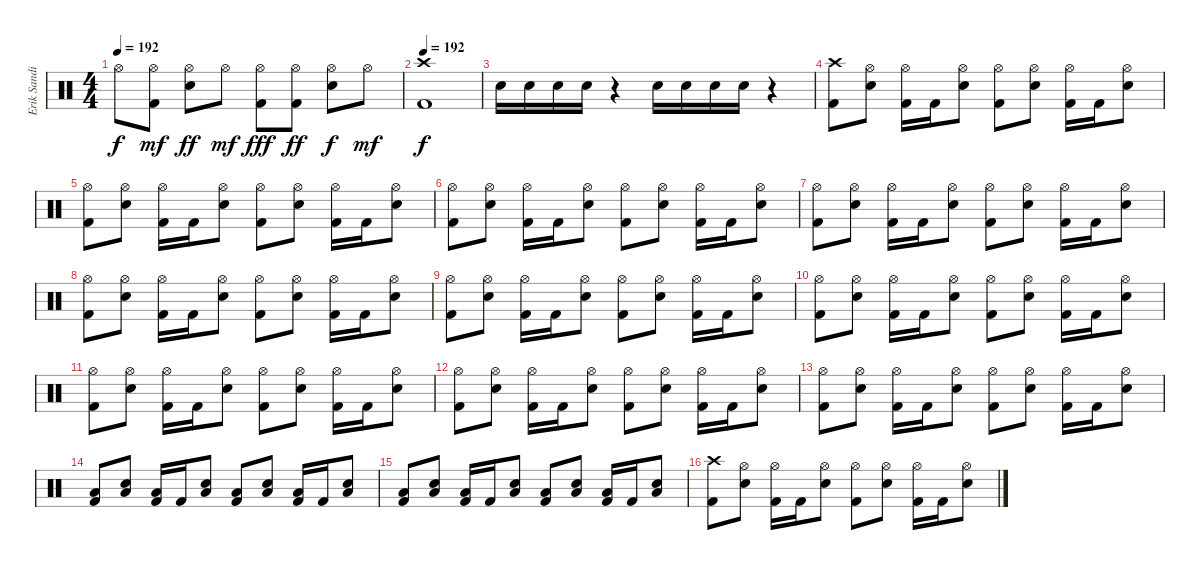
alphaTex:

\track ("Erik Sandin - Drums" "Erik Sandi") {instrument percussion}
\staff {score}
\articulation defaults
\ts (4 4)
\tempo 192
\clef neutral
\ks c "Hi-Hat (open)".8{dy f}
("Hi-Hat (open)" "Kick (hit) 2").8{dy mf} ("Hi-Hat (open)" "Electric Snare (hit)").8{dy ff} "Hi-Hat (open)".8{dy mf} ("Hi-Hat (open)" "Kick (hit) 2").8{dy fff} ("Hi-Hat (open)" "Kick (hit) 2").8{dy ff} ("Hi-Hat (open)" "Electric Snare (hit)").8{dy f} "Hi-Hat (open)".8{dy mf} |
\tempo 192
("Crash high (hit)" "Kick (hit) 2").1{dy f} |
"Electric Snare (hit)".16 "Electric Snare (hit)".16 "Electric Snare (hit)".16 "Electric Snare (hit)".16 r.4 "Electric Snare (hit)".16 "Electric Snare (hit)".16 "Electric Snare (hit)".16 "Electric Snare (hit)".16 r.4 |
("Crash high (hit)" "Kick (hit) 2").8 ("Hi-Hat (open)" "Electric Snare (hit)").8 ("Hi-Hat (open)" "Kick (hit) 2").16 "Kick (hit) 2".16 ("Hi-Hat (open)" "Electric Snare (hit)").8 ("Hi-Hat (open)" "Kick (hit) 2").8 ("Hi-Hat (open)" "Electric Snare (hit)").8 ("Hi-Hat (open)" "Kick (hit) 2").16 "Kick (hit) 2".16 ("Hi-Hat (open)" "Electric Snare (hit)").8 |
("Hi-Hat (open)" "Kick (hit) 2").8 ("Hi-Hat (open)" "Electric Snare (hit)").8 ("Hi-Hat (open)" "Kick (hit) 2").16 "Kick (hit) 2".16 ("Hi-Hat (open)" "Electric Snare (hit)").8 ("Hi-Hat (open)" "Kick (hit) 2").8 ("Hi-Hat (open)" "Electric Snare (hit)").8 ("Hi-Hat (open)" "Kick (hit) 2").16 "Kick (hit) 2".16 ("Hi-Hat (open)" "Electric Snare (hit)").8 |
("Hi-Hat (open)" "Kick (hit) 2").8 ("Hi-Hat (open)" "Electric Snare (hit)").8 ("Hi-Hat (open)" "Kick (hit) 2").16 "Kick (hit) 2".16 ("Hi-Hat (open)" "Electric Snare (hit)").8 ("Hi-Hat (open)" "Kick (hit) 2").8 ("Hi-Hat (open)" "Electric Snare (hit)").8 ("Hi-Hat (open)" "Kick (hit) 2").16 "Kick (hit) 2".16 ("Hi-Hat (open)" "Electric Snare (hit)").8 |
("Hi-Hat (open)" "Kick (hit) 2").8 ("Hi-Hat (open)" "Electric Snare (hit)").8 ("Hi-Hat (open)" "Kick (hit) 2").16 "Kick (hit) 2".16 ("Hi-Hat (open)" "Electric Snare (hit)").8 ("Hi-Hat (open)" "Kick (hit) 2").8 ("Hi-Hat (open)" "Electric Snare (hit)").8 ("Hi-Hat (open)" "Kick (hit) 2").16 "Kick (hit) 2".16 ("Hi-Hat (open)" "Electric Snare (hit)").8 |
("Hi-Hat (open)" "Kick (hit) 2").8 ("Hi-Hat (open)" "Electric Snare (hit)").8 ("Hi-Hat (open)" "Kick (hit) 2").16 "Kick (hit) 2".16 ("Hi-Hat (open)" "Electric Snare (hit)").8 ("Hi-Hat (open)" "Kick (hit) 2").8 ("Hi-Hat (open)" "Electric Snare (hit)").8 ("Hi-Hat (open)" "Kick (hit) 2").16 "Kick (hit) 2".16 ("Hi-Hat (open)" "Electric Snare (hit)").8 |
("Hi-Hat (open)" "Kick (hit) 2").8 ("Hi-Hat (open)" "Electric Snare (hit)").8 ("Hi-Hat (open)" "Kick (hit) 2").16 "Kick (hit) 2".16 ("Hi-Hat (open)" "Electric Snare (hit)").8 ("Hi-Hat (open)" "Kick (hit) 2").8 ("Hi-Hat (open)" "Electric Snare (hit)").8 ("Hi-Hat (open)" "Kick (hit) 2").16 "Kick (hit) 2".16 ("Hi-Hat (open)" "Electric Snare (hit)").8 |
("Hi-Hat (open)" "Kick (hit) 2").8 ("Hi-Hat (open)" "Electric Snare (hit)").8 ("Hi-Hat (open)" "Kick (hit) 2").16 "Kick (hit) 2".16 ("Hi-Hat (open)" "Electric Snare (hit)").8 ("Hi-Hat (open)" "Kick (hit) 2").8 ("Hi-Hat (open)" "Electric Snare (hit)").8 ("Hi-Hat (open)" "Kick (hit) 2").16 "Kick (hit) 2".16 ("Hi-Hat (open)" "Electric Snare (hit)").8 |
("Hi-Hat (open)" "Kick (hit) 2").8 ("Hi-Hat (open)" "Electric Snare (hit)").8 ("Hi-Hat (open)" "Kick (hit) 2").16 "Kick (hit) 2".16 ("Hi-Hat (open)" "Electric Snare (hit)").8 ("Hi-Hat (open)" "Kick (hit) 2").8 ("Hi-Hat (open)" "Electric Snare (hit)").8 ("Hi-Hat (open)" "Kick (hit) 2").16 "Kick (hit) 2".16 ("Hi-Hat (open)" "Electric Snare (hit)").8 |
("Hi-Hat (open)" "Kick (hit) 2").8 ("Hi-Hat (open)" "Electric Snare (hit)").8 ("Hi-Hat (open)" "Kick (hit) 2").16 "Kick (hit) 2".16 ("Hi-Hat (open)" "Electric Snare (hit)").8 ("Hi-Hat (open)" "Kick (hit) 2").8 ("Hi-Hat (open)" "Electric Snare (hit)").8 ("Hi-Hat (open)" "Kick (hit) 2").16 "Kick (hit) 2".16 ("Hi-Hat (open)" "Electric Snare (hit)").8 |
("Hi-Hat (open)" "Kick (hit) 2").8 ("Hi-Hat (open)" "Electric Snare (hit)").8 ("Hi-Hat (open)" "Kick (hit) 2").16 "Kick (hit) 2".16 ("Hi-Hat (open)" "Electric Snare (hit)").8 ("Hi-Hat (open)" "Kick (hit) 2").8 ("Hi-Hat (open)" "Electric Snare (hit)").8 ("Hi-Hat (open)" "Kick (hit) 2").16 "Kick (hit) 2".16 ("Hi-Hat (open)" "Electric Snare (hit)").8 |
("Low Floor Tom (hit)" "Kick (hit) 2").8 ("Low Floor Tom (hit)" "Electric Snare (hit)").8 ("Low Floor Tom (hit)" "Kick (hit) 2").16 "Kick (hit) 2".16 ("Low Floor Tom (hit)" "Electric Snare (hit)").8 ("Low Floor Tom (hit)" "Kick (hit) 2").8 ("Low Floor Tom (hit)" "Electric Snare (hit)").8 ("Low Floor Tom (hit)" "Kick (hit) 2").16 "Kick (hit) 2".16 ("Low Floor Tom (hit)" "Electric Snare (hit)").8 |
("Low Floor Tom (hit)" "Kick (hit) 2").8 ("Low Floor Tom (hit)" "Electric Snare (hit)").8 ("Low Floor Tom (hit)" "Kick (hit) 2").16 "Kick (hit) 2".16 ("Low Floor Tom (hit)" "Electric Snare (hit)").8 ("Low Floor Tom (hit)" "Kick (hit) 2").8 ("Low Floor Tom (hit)" "Electric Snare (hit)").8 ("Low Floor Tom (hit)" "Kick (hit) 2").16 "Kick (hit) 2".16 ("Low Floor Tom (hit)" "Electric Snare (hit)").8 |
("Crash high (hit)" "Kick (hit) 2").8 ("Hi-Hat (open)" "Electric Snare (hit)").8 ("Hi-Hat (open)" "Kick (hit) 2").16 "Kick (hit) 2".16 ("Hi-Hat (open)" "Electric Snare (hit)").8 ("Hi-Hat (open)" "Kick (hit) 2").8 ("Hi-Hat (open)" "Electric Snare (hit)").8 ("Hi-Hat (open)" "Kick (hit) 2").16 "Kick (hit) 2".16 ("Hi-Hat (open)" "Electric Snare (hit)").8
